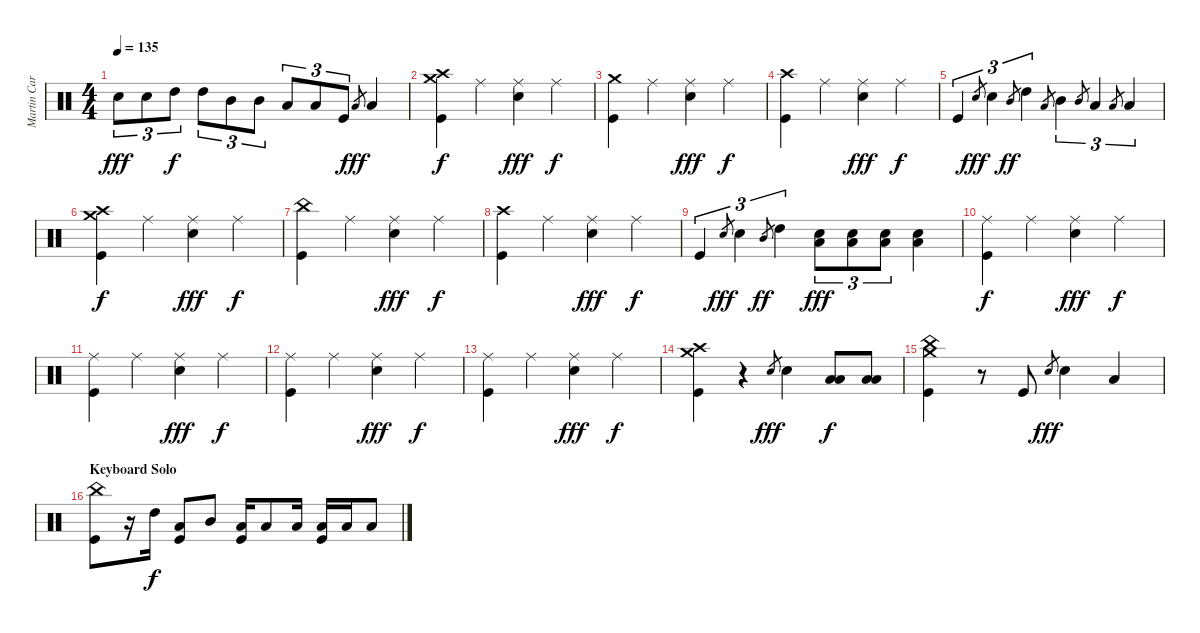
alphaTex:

\track ("Martin Carrizo" "Martin Car") {instrument percussion}
\staff {score}
\articulation defaults
\ts (4 4)
\tempo 135
\clef neutral
\ks c "Snare (hit) 2".8{tu (3 2) dy fff} "Snare (hit) 2".8{tu (3 2)} "High Tom (hit)".8{tu (3 2) dy f} "High Tom (hit)".8{tu (3 2)} "Mid Tom (hit)".8{tu (3 2)} "Mid Tom (hit)".8{tu (3 2)} "Low Tom (hit)".8{tu (3 2)} "Low Tom (hit)".8{tu (3 2)} "Kick (hit)".8{tu (3 2)} "Low Tom (hit)".8{gr dy fff} "Low Floor Tom (hit)".4
|
("Kick (hit)" "Crash high (hit)" "Crash medium (hit)").4{dy f} "Ride (middle)".4 ("Snare (hit) 2" "Ride (middle)").4{dy fff} "Ride (middle)".4{dy f} |
("Kick (hit)" "Crash medium (hit)").4 "Ride (middle)".4 ("Snare (hit) 2" "Ride (middle)").4{dy fff} "Ride (middle)".4{dy f} |
("Kick (hit)" "Crash high (hit)").4 "Ride (middle)".4 ("Snare (hit) 2" "Ride (middle)").4{dy fff} "Ride (middle)".4{dy f} |
"Kick (hit)".4{tu (3 2)} "Snare (hit) 2".8{gr dy fff} "Snare (hit) 2".4{tu (3 2)} "Mid Tom (hit)".8{gr dy ff} "High Tom (hit)".4{tu (3 2)} "Low Tom (hit)".8{gr} "Mid Tom (hit)".4{tu (3 2)} "Mid Tom (hit)".8{gr} "Low Tom (hit)".4{tu (3 2)} "Low Floor Tom (hit)".8{gr} "Low Floor Tom (hit)".4{tu (3 2)} |
("Kick (hit)" "Crash high (hit)" "Crash medium (hit)").4{dy f} "Ride (middle)".4 ("Snare (hit) 2" "Ride (middle)").4{dy fff} "Ride (middle)".4{dy f} |
("Kick (hit)" "China (hit)").4 "Ride (middle)".4 ("Snare (hit) 2" "Ride (middle)").4{dy fff} "Ride (middle)".4{dy f} |
("Kick (hit)" "Crash high (hit)").4 "Ride (middle)".4 ("Snare (hit) 2" "Ride (middle)").4{dy fff} "Ride (middle)".4{dy f} |
"Kick (hit)".4{tu (3 2)} "Snare (hit) 2".8{gr dy fff} "Snare (hit) 2".4{tu (3 2)} "Mid Tom (hit)".8{gr dy ff} "High Tom (hit)".4{tu (3 2)} ("Low Floor Tom (hit)" "Snare (hit) 2").8{tu (3 2) dy fff} ("Snare (hit) 2" "Low Floor Tom (hit)").8{tu (3 2)} ("Snare (hit) 2" "Low Floor Tom (hit)").8{tu (3 2)} ("Snare (hit) 2" "Low Floor Tom (hit)").4 |
("Kick (hit)" "Ride (middle)").4{dy f} "Ride (middle)".4 ("Snare (hit) 2" "Ride (middle)").4{dy fff} "Ride (middle)".4{dy f} |
("Kick (hit)" "Ride (middle)").4 "Ride (middle)".4 ("Snare (hit) 2" "Ride (middle)").4{dy fff} "Ride (middle)".4{dy f} |
("Kick (hit)" "Ride (middle)").4 "Ride (middle)".4 ("Snare (hit) 2" "Ride (middle)").4{dy fff} "Ride (middle)".4{dy f} |
("Kick (hit)" "Ride (middle)").4 "Ride (middle)".4 ("Snare (hit) 2" "Ride (middle)").4{dy fff} "Ride (middle)".4{dy f} |
("Kick (hit)" "Crash high (hit)" "Crash medium (hit)").4 r.4 "Snare (hit) 2".8{gr dy fff} "Snare (hit) 2".4 ("Low Tom (hit)" "Low Floor Tom (hit)").8{dy f} ("Low Tom (hit)" "Low Floor Tom (hit)").8 |
("Kick (hit)" "Crash medium (hit)" "China (hit)").4 r.8 "Kick (hit)".8 "Snare (hit) 2".8{gr dy fff} "Snare (hit) 2".4 "Low Floor Tom (hit)".4 |
\section ("" "Keyboard Solo")
("Kick (hit)" "China (hit)").8 r.16 "High Tom (hit)".16{dy f} ("Kick (hit)" "Low Floor Tom (hit)").8 "Mid Tom (hit)".8 ("Kick (hit)" "Low Floor Tom (hit)").16 "Low Tom (hit)".8 "Low Tom (hit)".16 ("Kick (hit)" "Low Floor Tom (hit)").16 "Low Floor Tom (hit)".16 "Low Floor Tom (hit)".8
